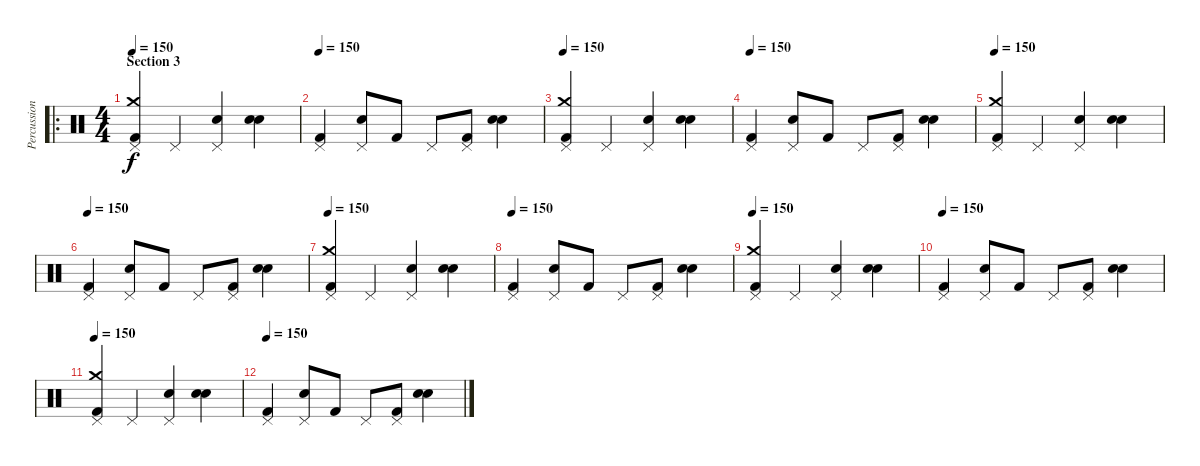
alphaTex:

\track ("Percussions" "Percussion") {instrument percussion}
\staff {score}
\articulation defaults
\ro
\ts (4 4)
\section ("" "Section 3")
\tempo 150
\clef neutral
\ks c
("Pedal Hi-Hat (hit)" "Crash medium (hit)" "Kick (hit) 2").4{dy f} "Pedal Hi-Hat (hit)".4 ("Pedal Hi-Hat (hit)" "Electric Snare (hit)").4 ("Snare (hit)" "Electric Snare (hit)").4 |
\tempo 150
("Pedal Hi-Hat (hit)" "Kick (hit) 2").4 ("Pedal Hi-Hat (hit)" "Electric Snare (hit)").8 "Kick (hit) 2".8 "Pedal Hi-Hat (hit)".8 ("Pedal Hi-Hat (hit)" "Kick (hit) 2").8 ("Snare (hit)" "Electric Snare (hit)").4 |
\tempo 150
("Pedal Hi-Hat (hit)" "Crash medium (hit)" "Kick (hit) 2").4 "Pedal Hi-Hat (hit)".4 ("Pedal Hi-Hat (hit)" "Electric Snare (hit)").4 ("Snare (hit)" "Electric Snare (hit)").4 |
\tempo 150
("Pedal Hi-Hat (hit)" "Kick (hit) 2").4 ("Pedal Hi-Hat (hit)" "Electric Snare (hit)").8 "Kick (hit) 2".8 "Pedal Hi-Hat (hit)".8 ("Pedal Hi-Hat (hit)" "Kick (hit) 2").8 ("Snare (hit)" "Electric Snare (hit)").4 |
\tempo 150
("Pedal Hi-Hat (hit)" "Crash medium (hit)" "Kick (hit) 2").4 "Pedal Hi-Hat (hit)".4 ("Pedal Hi-Hat (hit)" "Electric Snare (hit)").4 ("Snare (hit)" "Electric Snare (hit)").4 |
\tempo 150
("Pedal Hi-Hat (hit)" "Kick (hit) 2").4 ("Pedal Hi-Hat (hit)" "Electric Snare (hit)").8 "Kick (hit) 2".8 "Pedal Hi-Hat (hit)".8 ("Pedal Hi-Hat (hit)" "Kick (hit) 2").8 ("Snare (hit)" "Electric Snare (hit)").4 |
\tempo 150
("Pedal Hi-Hat (hit)" "Crash medium (hit)" "Kick (hit) 2").4 "Pedal Hi-Hat (hit)".4 ("Pedal Hi-Hat (hit)" "Electric Snare (hit)").4 ("Snare (hit)" "Electric Snare (hit)").4 |
\tempo 150
("Pedal Hi-Hat (hit)" "Kick (hit) 2").4 ("Pedal Hi-Hat (hit)" "Electric Snare (hit)").8 "Kick (hit) 2".8 "Pedal Hi-Hat (hit)".8 ("Pedal Hi-Hat (hit)" "Kick (hit) 2").8 ("Snare (hit)" "Electric Snare (hit)").4 |
\tempo 150
("Pedal Hi-Hat (hit)" "Crash medium (hit)" "Kick (hit) 2").4 "Pedal Hi-Hat (hit)".4 ("Pedal Hi-Hat (hit)" "Electric Snare (hit)").4 ("Snare (hit)" "Electric Snare (hit)").4 |
\tempo 150
("Pedal Hi-Hat (hit)" "Kick (hit) 2").4 ("Pedal Hi-Hat (hit)" "Electric Snare (hit)").8 "Kick (hit) 2".8 "Pedal Hi-Hat (hit)".8 ("Pedal Hi-Hat (hit)" "Kick (hit) 2").8 ("Snare (hit)" "Electric Snare (hit)").4 |
\tempo 150
("Pedal Hi-Hat (hit)" "Crash medium (hit)" "Kick (hit) 2").4 "Pedal Hi-Hat (hit)".4 ("Pedal Hi-Hat (hit)" "Electric Snare (hit)").4 ("Snare (hit)" "Electric Snare (hit)").4 |
\tempo 150
("Pedal Hi-Hat (hit)" "Kick (hit) 2").4 ("Pedal Hi-Hat (hit)" "Electric Snare (hit)").8 "Kick (hit) 2".8 "Pedal Hi-Hat (hit)".8 ("Pedal Hi-Hat (hit)" "Kick (hit) 2").8 ("Snare (hit)" "Electric Snare (hit)").4
